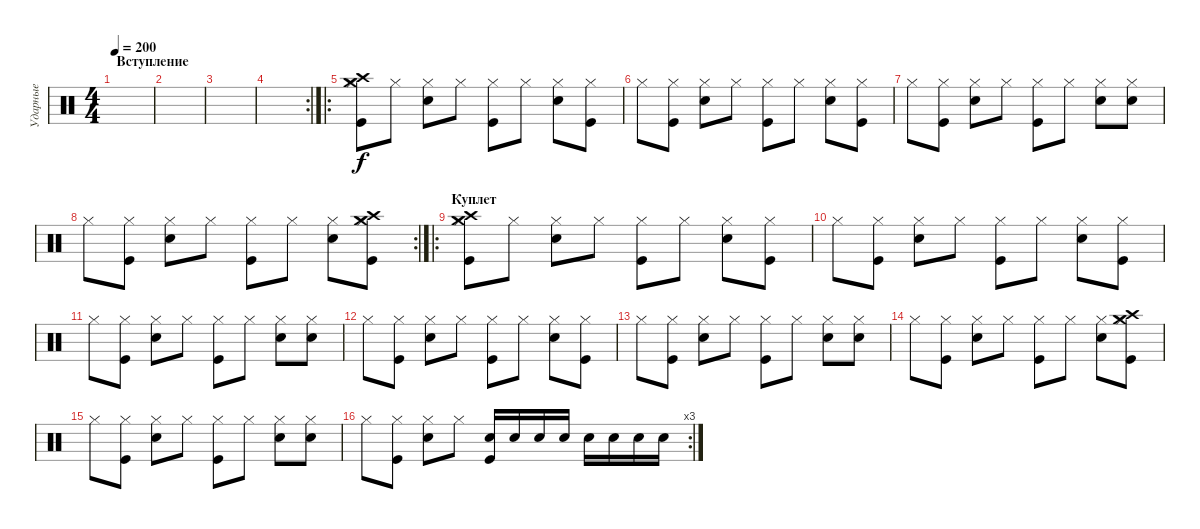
\track ("Ударные" "Ударные") {instrument percussion}
\staff {score}
\articulation defaults
\ts (4 4)
\section ("" "Вступление")
\tempo 200
\clef neutral
\ks c
|
|
|
\rc 2
|
\ro
("Hi-Hat (closed)" "Kick (hit)" "Crash high (hit)" "Crash medium (hit)").8 "Hi-Hat (closed)".8 ("Electric Snare (hit)" "Hi-Hat (closed)").8 "Hi-Hat (closed)".8 ("Hi-Hat (closed)" "Kick (hit)").8 "Hi-Hat (closed)".8 ("Hi-Hat (closed)" "Electric Snare (hit)").8 ("Hi-Hat (closed)" "Kick (hit)").8 |
"Hi-Hat (closed)".8 ("Hi-Hat (closed)" "Kick (hit)").8 ("Hi-Hat (closed)" "Electric Snare (hit)").8 "Hi-Hat (closed)".8 ("Kick (hit)" "Hi-Hat (closed)").8 "Hi-Hat (closed)".8 ("Electric Snare (hit)" "Hi-Hat (closed)").8 ("Kick (hit)" "Hi-Hat (closed)").8 |
"Hi-Hat (closed)".8 ("Kick (hit)" "Hi-Hat (closed)").8 ("Electric Snare (hit)" "Hi-Hat (closed)").8 "Hi-Hat (closed)".8 ("Hi-Hat (closed)" "Kick (hit)").8 "Hi-Hat (closed)".8 ("Hi-Hat (closed)" "Electric Snare (hit)").8 ("Electric Snare (hit)" "Hi-Hat (closed)").8 |
\rc 2 "Hi-Hat (closed)".8
("Hi-Hat (closed)" "Kick (hit)").8 ("Hi-Hat (closed)" "Electric Snare (hit)").8 "Hi-Hat (closed)".8 ("Kick (hit)" "Hi-Hat (closed)").8 "Hi-Hat (closed)".8 ("Electric Snare (hit)" "Hi-Hat (closed)").8 ("Crash medium (hit)" "Hi-Hat (closed)" "Kick (hit)" "Crash high (hit)").8 |
\ro
\section ("" "Куплет")
("Hi-Hat (closed)" "Kick (hit)" "Crash high (hit)" "Crash medium (hit)").8 "Hi-Hat (closed)".8 ("Electric Snare (hit)" "Hi-Hat (closed)").8 "Hi-Hat (closed)".8 ("Hi-Hat (closed)" "Kick (hit)").8 "Hi-Hat (closed)".8 ("Hi-Hat (closed)" "Electric Snare (hit)").8 ("Hi-Hat (closed)" "Kick (hit)").8 |
"Hi-Hat (closed)".8 ("Hi-Hat (closed)" "Kick (hit)").8 ("Hi-Hat (closed)" "Electric Snare (hit)").8 "Hi-Hat (closed)".8 ("Kick (hit)" "Hi-Hat (closed)").8 "Hi-Hat (closed)".8 ("Electric Snare (hit)" "Hi-Hat (closed)").8 ("Kick (hit)" "Hi-Hat (closed)").8 |
"Hi-Hat (closed)".8 ("Kick (hit)" "Hi-Hat (closed)").8 ("Electric Snare (hit)" "Hi-Hat (closed)").8 "Hi-Hat (closed)".8 ("Hi-Hat (closed)" "Kick (hit)").8 "Hi-Hat (closed)".8 ("Hi-Hat (closed)" "Electric Snare (hit)").8 ("Electric Snare (hit)" "Hi-Hat (closed)").8 |
"Hi-Hat (closed)".8 ("Hi-Hat (closed)" "Kick (hit)").8 ("Hi-Hat (closed)" "Electric Snare (hit)").8 "Hi-Hat (closed)".8 ("Kick (hit)" "Hi-Hat (closed)").8 "Hi-Hat (closed)".8 ("Electric Snare (hit)" "Hi-Hat (closed)").8 ("Kick (hit)" "Hi-Hat (closed)").8 |
"Hi-Hat (closed)".8 ("Kick (hit)" "Hi-Hat (closed)").8 ("Electric Snare (hit)" "Hi-Hat (closed)").8 "Hi-Hat (closed)".8 ("Hi-Hat (closed)" "Kick (hit)").8 "Hi-Hat (closed)".8 ("Hi-Hat (closed)" "Electric Snare (hit)").8 ("Electric Snare (hit)" "Hi-Hat (closed)").8 |
"Hi-Hat (closed)".8 ("Kick (hit)" "Hi-Hat (closed)").8 ("Electric Snare (hit)" "Hi-Hat (closed)").8 "Hi-Hat (closed)".8 ("Hi-Hat (closed)" "Kick (hit)").8 "Hi-Hat (closed)".8 ("Hi-Hat (closed)" "Electric Snare (hit)").8 ("Crash medium (hit)" "Hi-Hat (closed)" "Kick (hit)" "Crash high (hit)").8 |
"Hi-Hat (closed)".8 ("Kick (hit)" "Hi-Hat (closed)").8 ("Electric Snare (hit)" "Hi-Hat (closed)").8 "Hi-Hat (closed)".8 ("Hi-Hat (closed)" "Kick (hit)").8 "Hi-Hat (closed)".8 ("Hi-Hat (closed)" "Electric Snare (hit)").8 ("Electric Snare (hit)" "Hi-Hat (closed)").8 |
\rc 3 "Hi-Hat (closed)".8
("Kick (hit)" "Hi-Hat (closed)").8 ("Electric Snare (hit)" "Hi-Hat (closed)").8 "Hi-Hat (closed)".8 ("Electric Snare (hit)" "Kick (hit)").16 "Electric Snare (hit)".16 "Electric Snare (hit)".16 "Electric Snare (hit)".16 "Electric Snare (hit)".16 "Electric Snare (hit)".16 "Electric Snare (hit)".16 "Electric Snare (hit)".16
